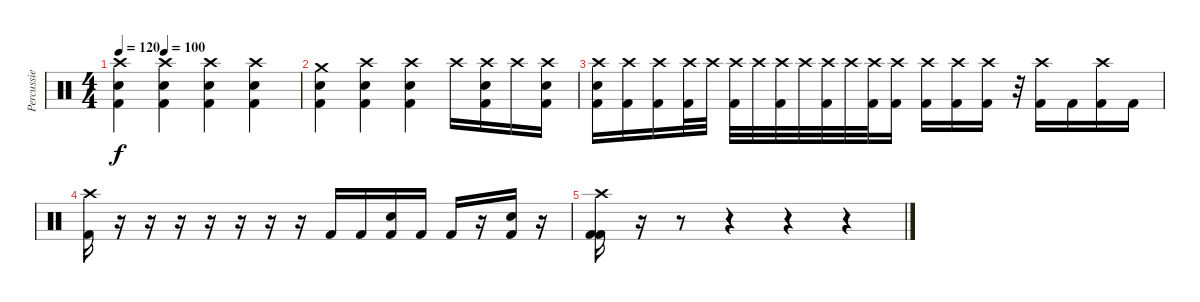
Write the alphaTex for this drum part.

\track ("Percussie" "Percussie") {instrument percussion}
\staff {score}
\articulation defaults
\ts (4 4)
\tempo 120
\tempo (100 0.25)
\clef neutral
\ks c
("Crash high (hit)" "Snare (hit) 2" "Kick (hit) 2").4{dy f} ("Crash high (hit)" "Snare (hit) 2" "Kick (hit) 2").4 ("Crash high (hit)" "Snare (hit) 2" "Kick (hit) 2").4 ("Crash high (hit)" "Snare (hit) 2" "Kick (hit) 2").4 |
("Crash medium (hit)" "Snare (hit) 2" "Kick (hit) 2").4 ("Crash high (hit)" "Snare (hit) 2" "Kick (hit) 2").4 ("Crash high (hit)" "Snare (hit) 2" "Kick (hit) 2").4 "Crash high (hit)".16 ("Crash high (hit)" "Snare (hit) 2" "Kick (hit) 2").16 "Crash high (hit)".16 ("Crash high (hit)" "Snare (hit) 2" "Kick (hit) 2").16 |
("Crash high (hit)" "Snare (hit) 2" "Kick (hit) 2").16 ("Crash high (hit)" "Kick (hit) 2").16 ("Crash high (hit)" "Kick (hit) 2").16 ("Crash high (hit)" "Kick (hit) 2").32 "Crash high (hit)".32 ("Crash high (hit)" "Kick (hit) 2").32 "Crash high (hit)".32 ("Crash high (hit)" "Kick (hit) 2").32 "Crash high (hit)".32 ("Crash high (hit)" "Kick (hit) 2").32 "Crash high (hit)".32 ("Crash high (hit)" "Kick (hit) 2").32 ("Crash high (hit)" "Kick (hit) 2").16 ("Crash high (hit)" "Kick (hit) 2").16 ("Crash high (hit)" "Kick (hit) 2").16 ("Crash high (hit)" "Kick (hit) 2").16 r.32 ("Crash high (hit)" "Kick (hit) 2").16 "Kick (hit) 2".16 ("Crash high (hit)" "Kick (hit) 2").16 "Kick (hit) 2".16 |
("Crash high (hit)" "Kick (hit) 2").16 r.16 r.16 r.16 r.16 r.16 r.16 r.16 "Kick (hit) 2".16 "Kick (hit) 2".16 ("Snare (hit) 2" "Kick (hit) 2").16 "Kick (hit) 2".16 "Kick (hit) 2".16 r.16 ("Snare (hit) 2" "Kick (hit) 2").16 r.16 |
("Crash high (hit)" "Kick (hit) 2" "Kick (hit) 2").16 r.16 r.8 r.4 r.4 r.4
